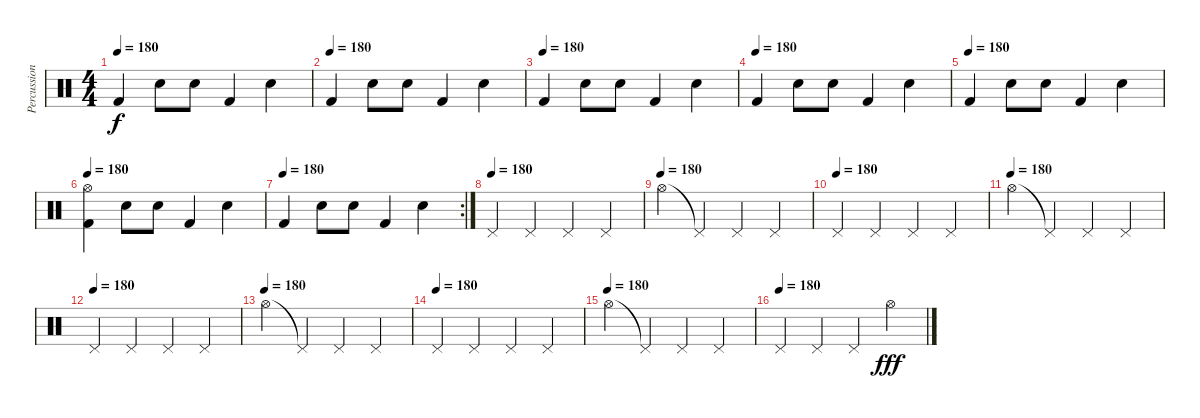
\track ("Percussions" "Percussion") {instrument percussion}
\staff {score}
\articulation defaults
\ts (4 4)
\tempo 180
\clef neutral
\ks c "Kick (hit) 2".4{dy f} "Hand Clap (hit)".8 "Hand Clap (hit)".8 "Kick (hit) 2".4 "Hand Clap (hit)".4
|
\tempo (180)
"Kick (hit) 2".4 "Hand Clap (hit)".8 "Hand Clap (hit)".8 "Kick (hit) 2".4 "Hand Clap (hit)".4 |
\tempo (180)
"Kick (hit) 2".4 "Hand Clap (hit)".8 "Hand Clap (hit)".8 "Kick (hit) 2".4 "Hand Clap (hit)".4 |
\tempo (180)
"Kick (hit) 2".4 "Hand Clap (hit)".8 "Hand Clap (hit)".8 "Kick (hit) 2".4 "Hand Clap (hit)".4 |
\tempo (180)
"Kick (hit) 2".4 "Hand Clap (hit)".8 "Hand Clap (hit)".8 "Kick (hit) 2".4 "Hand Clap (hit)".4 |
\tempo 180
("Kick (hit) 2" "Hi-Hat (open)").4 "Hand Clap (hit)".8 "Hand Clap (hit)".8 "Kick (hit) 2".4 "Hand Clap (hit)".4 |
\rc 2
\tempo (180)
"Kick (hit) 2".4 "Hand Clap (hit)".8 "Hand Clap (hit)".8 "Kick (hit) 2".4 "Hand Clap (hit)".4 |
\tempo (180)
"Pedal Hi-Hat (hit)".4 "Pedal Hi-Hat (hit)".4 "Pedal Hi-Hat (hit)".4 "Pedal Hi-Hat (hit)".4 |
\tempo (180)
"Hi-Hat (open)".4 "Pedal Hi-Hat (hit)"{t}.4 "Pedal Hi-Hat (hit)".4 "Pedal Hi-Hat (hit)".4 |
\tempo (180)
"Pedal Hi-Hat (hit)".4 "Pedal Hi-Hat (hit)".4 "Pedal Hi-Hat (hit)".4 "Pedal Hi-Hat (hit)".4 |
\tempo (180)
"Hi-Hat (open)".4 "Pedal Hi-Hat (hit)"{t}.4 "Pedal Hi-Hat (hit)".4 "Pedal Hi-Hat (hit)".4 |
\tempo (180)
"Pedal Hi-Hat (hit)".4 "Pedal Hi-Hat (hit)".4 "Pedal Hi-Hat (hit)".4 "Pedal Hi-Hat (hit)".4 |
\tempo (180)
"Hi-Hat (open)".4 "Pedal Hi-Hat (hit)"{t}.4 "Pedal Hi-Hat (hit)".4 "Pedal Hi-Hat (hit)".4 |
\tempo (180)
"Pedal Hi-Hat (hit)".4 "Pedal Hi-Hat (hit)".4 "Pedal Hi-Hat (hit)".4 "Pedal Hi-Hat (hit)".4 |
\tempo (180)
"Hi-Hat (open)".4 "Pedal Hi-Hat (hit)"{t}.4 "Pedal Hi-Hat (hit)".4 "Pedal Hi-Hat (hit)".4 |
\tempo (180)
"Pedal Hi-Hat (hit)".4 "Pedal Hi-Hat (hit)".4 "Pedal Hi-Hat (hit)".4 "Hi-Hat (open)".4{dy fff}
